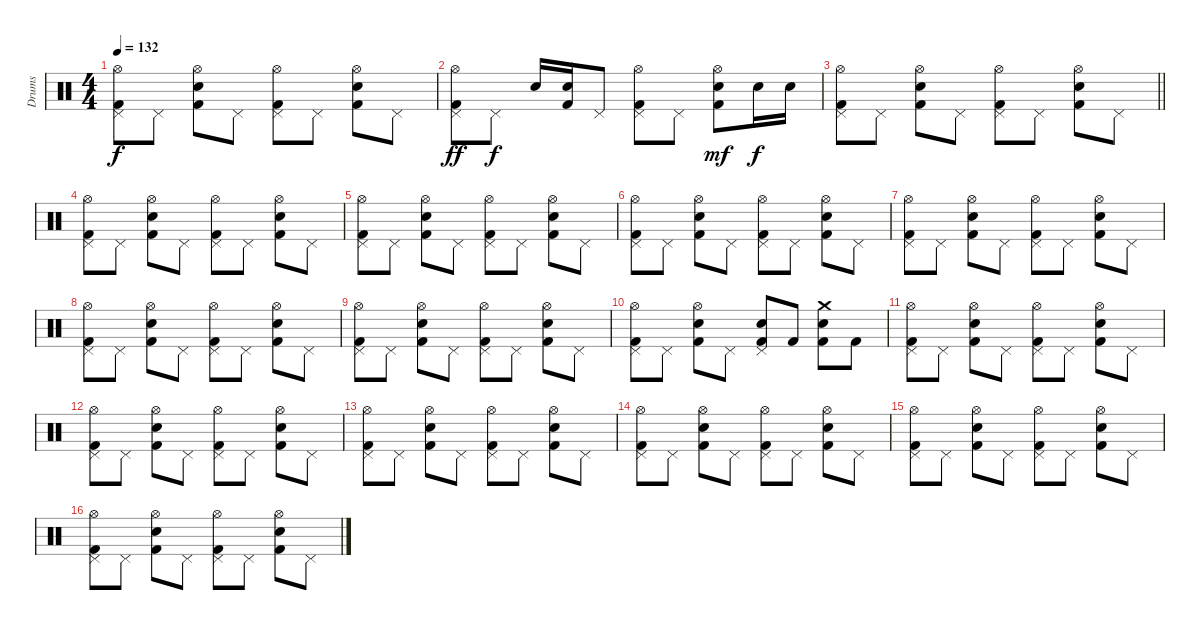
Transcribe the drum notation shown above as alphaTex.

\track ("Drums" "Drums") {instrument percussion}
\staff {score}
\articulation defaults
\ts (4 4)
\tempo 132
\clef neutral
\ks c
("Hi-Hat (open)" "Pedal Hi-Hat (hit)" "Kick (hit) 2").8{dy f} "Pedal Hi-Hat (hit)".8 ("Electric Snare (hit)" "Hi-Hat (open)" "Kick (hit) 2").8 "Pedal Hi-Hat (hit)".8 ("Hi-Hat (open)" "Pedal Hi-Hat (hit)" "Kick (hit) 2").8 "Pedal Hi-Hat (hit)".8 ("Electric Snare (hit)" "Hi-Hat (open)" "Kick (hit) 2").8 "Pedal Hi-Hat (hit)".8 |
("Hi-Hat (open)" "Pedal Hi-Hat (hit)" "Kick (hit) 2").8{dy ff} "Pedal Hi-Hat (hit)".8{dy f} "Electric Snare (hit)".16 ("Electric Snare (hit)" "Kick (hit) 2").16 "Pedal Hi-Hat (hit)".8 ("Hi-Hat (open)" "Pedal Hi-Hat (hit)" "Kick (hit) 2").8 "Pedal Hi-Hat (hit)".8 ("Electric Snare (hit)" "Hi-Hat (open)" "Kick (hit) 2").8{dy mf} "Electric Snare (hit)".16{dy f} "Electric Snare (hit)".16 |
\barLineRight lightlight
("Hi-Hat (open)" "Pedal Hi-Hat (hit)" "Kick (hit) 2").8 "Pedal Hi-Hat (hit)".8 ("Electric Snare (hit)" "Hi-Hat (open)" "Kick (hit) 2").8 "Pedal Hi-Hat (hit)".8 ("Hi-Hat (open)" "Pedal Hi-Hat (hit)" "Kick (hit) 2").8 "Pedal Hi-Hat (hit)".8 ("Electric Snare (hit)" "Hi-Hat (open)" "Kick (hit) 2").8 "Pedal Hi-Hat (hit)".8 |
\section ("" "")
("Hi-Hat (open)" "Pedal Hi-Hat (hit)" "Kick (hit) 2").8 "Pedal Hi-Hat (hit)".8 ("Electric Snare (hit)" "Hi-Hat (open)" "Kick (hit) 2").8 "Pedal Hi-Hat (hit)".8 ("Hi-Hat (open)" "Pedal Hi-Hat (hit)" "Kick (hit) 2").8 "Pedal Hi-Hat (hit)".8 ("Electric Snare (hit)" "Hi-Hat (open)" "Kick (hit) 2").8 "Pedal Hi-Hat (hit)".8 |
("Hi-Hat (open)" "Pedal Hi-Hat (hit)" "Kick (hit) 2").8 "Pedal Hi-Hat (hit)".8 ("Electric Snare (hit)" "Hi-Hat (open)" "Kick (hit) 2").8 "Pedal Hi-Hat (hit)".8 ("Hi-Hat (open)" "Pedal Hi-Hat (hit)" "Kick (hit) 2").8 "Pedal Hi-Hat (hit)".8 ("Electric Snare (hit)" "Hi-Hat (open)" "Kick (hit) 2").8 "Pedal Hi-Hat (hit)".8 |
("Hi-Hat (open)" "Pedal Hi-Hat (hit)" "Kick (hit) 2").8 "Pedal Hi-Hat (hit)".8 ("Electric Snare (hit)" "Hi-Hat (open)" "Kick (hit) 2").8 "Pedal Hi-Hat (hit)".8 ("Hi-Hat (open)" "Pedal Hi-Hat (hit)" "Kick (hit) 2").8 "Pedal Hi-Hat (hit)".8 ("Electric Snare (hit)" "Hi-Hat (open)" "Kick (hit) 2").8 "Pedal Hi-Hat (hit)".8 |
("Hi-Hat (open)" "Pedal Hi-Hat (hit)" "Kick (hit) 2").8 "Pedal Hi-Hat (hit)".8 ("Electric Snare (hit)" "Hi-Hat (open)" "Kick (hit) 2").8 "Pedal Hi-Hat (hit)".8 ("Hi-Hat (open)" "Pedal Hi-Hat (hit)" "Kick (hit) 2").8 "Pedal Hi-Hat (hit)".8 ("Electric Snare (hit)" "Hi-Hat (open)" "Kick (hit) 2").8 "Pedal Hi-Hat (hit)".8 |
("Hi-Hat (open)" "Pedal Hi-Hat (hit)" "Kick (hit) 2").8 "Pedal Hi-Hat (hit)".8 ("Electric Snare (hit)" "Hi-Hat (open)" "Kick (hit) 2").8 "Pedal Hi-Hat (hit)".8 ("Hi-Hat (open)" "Pedal Hi-Hat (hit)" "Kick (hit) 2").8 "Pedal Hi-Hat (hit)".8 ("Electric Snare (hit)" "Hi-Hat (open)" "Kick (hit) 2").8 "Pedal Hi-Hat (hit)".8 |
("Hi-Hat (open)" "Pedal Hi-Hat (hit)" "Kick (hit) 2").8 "Pedal Hi-Hat (hit)".8 ("Electric Snare (hit)" "Hi-Hat (open)" "Kick (hit) 2").8 "Pedal Hi-Hat (hit)".8 ("Hi-Hat (open)" "Pedal Hi-Hat (hit)" "Kick (hit) 2").8 "Pedal Hi-Hat (hit)".8 ("Electric Snare (hit)" "Hi-Hat (open)" "Kick (hit) 2").8 "Pedal Hi-Hat (hit)".8 |
("Hi-Hat (open)" "Pedal Hi-Hat (hit)" "Kick (hit) 2").8 "Pedal Hi-Hat (hit)".8 ("Electric Snare (hit)" "Hi-Hat (open)" "Kick (hit) 2").8 "Pedal Hi-Hat (hit)".8 ("Electric Snare (hit)" "Pedal Hi-Hat (hit)" "Kick (hit) 2").8 "Kick (hit) 2".8 ("Electric Snare (hit)" "Crash medium (hit)" "Kick (hit) 2").8 "Kick (hit) 2".8 |
("Hi-Hat (open)" "Pedal Hi-Hat (hit)" "Kick (hit) 2").8 "Pedal Hi-Hat (hit)".8 ("Electric Snare (hit)" "Hi-Hat (open)" "Kick (hit) 2").8 "Pedal Hi-Hat (hit)".8 ("Hi-Hat (open)" "Pedal Hi-Hat (hit)" "Kick (hit) 2").8 "Pedal Hi-Hat (hit)".8 ("Electric Snare (hit)" "Hi-Hat (open)" "Kick (hit) 2").8 "Pedal Hi-Hat (hit)".8 |
("Hi-Hat (open)" "Pedal Hi-Hat (hit)" "Kick (hit) 2").8 "Pedal Hi-Hat (hit)".8 ("Electric Snare (hit)" "Hi-Hat (open)" "Kick (hit) 2").8 "Pedal Hi-Hat (hit)".8 ("Hi-Hat (open)" "Pedal Hi-Hat (hit)" "Kick (hit) 2").8 "Pedal Hi-Hat (hit)".8 ("Electric Snare (hit)" "Hi-Hat (open)" "Kick (hit) 2").8 "Pedal Hi-Hat (hit)".8 |
("Hi-Hat (open)" "Pedal Hi-Hat (hit)" "Kick (hit) 2").8 "Pedal Hi-Hat (hit)".8 ("Electric Snare (hit)" "Hi-Hat (open)" "Kick (hit) 2").8 "Pedal Hi-Hat (hit)".8 ("Hi-Hat (open)" "Pedal Hi-Hat (hit)" "Kick (hit) 2").8 "Pedal Hi-Hat (hit)".8 ("Electric Snare (hit)" "Hi-Hat (open)" "Kick (hit) 2").8 "Pedal Hi-Hat (hit)".8 |
("Hi-Hat (open)" "Pedal Hi-Hat (hit)" "Kick (hit) 2").8 "Pedal Hi-Hat (hit)".8 ("Electric Snare (hit)" "Hi-Hat (open)" "Kick (hit) 2").8 "Pedal Hi-Hat (hit)".8 ("Hi-Hat (open)" "Pedal Hi-Hat (hit)" "Kick (hit) 2").8 "Pedal Hi-Hat (hit)".8 ("Electric Snare (hit)" "Hi-Hat (open)" "Kick (hit) 2").8 "Pedal Hi-Hat (hit)".8 |
("Hi-Hat (open)" "Pedal Hi-Hat (hit)" "Kick (hit) 2").8 "Pedal Hi-Hat (hit)".8 ("Electric Snare (hit)" "Hi-Hat (open)" "Kick (hit) 2").8 "Pedal Hi-Hat (hit)".8 ("Hi-Hat (open)" "Pedal Hi-Hat (hit)" "Kick (hit) 2").8 "Pedal Hi-Hat (hit)".8 ("Electric Snare (hit)" "Hi-Hat (open)" "Kick (hit) 2").8 "Pedal Hi-Hat (hit)".8 |
("Hi-Hat (open)" "Pedal Hi-Hat (hit)" "Kick (hit) 2").8 "Pedal Hi-Hat (hit)".8 ("Electric Snare (hit)" "Hi-Hat (open)" "Kick (hit) 2").8 "Pedal Hi-Hat (hit)".8 ("Hi-Hat (open)" "Pedal Hi-Hat (hit)" "Kick (hit) 2").8 "Pedal Hi-Hat (hit)".8 ("Electric Snare (hit)" "Hi-Hat (open)" "Kick (hit) 2").8 "Pedal Hi-Hat (hit)".8
